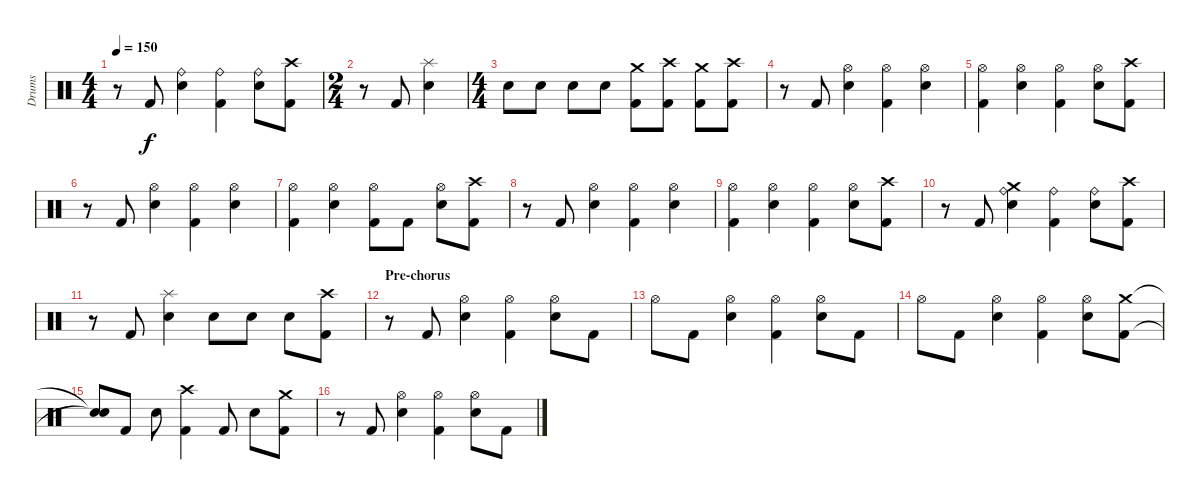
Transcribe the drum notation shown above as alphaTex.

\track ("Drums" "Drums") {instrument percussion}
\staff {score}
\articulation defaults
\ts (4 4)
\tempo 150
\clef neutral
\ks c
r.8{dy f} "Kick (hit) 2".8 ("Ride (bell)" "Electric Snare (hit)").4 ("Ride (bell)" "Kick (hit) 2").4 ("Ride (bell)" "Electric Snare (hit)").8 ("Crash high (hit)" "Kick (hit) 2").8 |
\ts (2 4)
r.8 "Kick (hit) 2".8 ("Electric Snare (hit)" "Splash (hit)").4 |
\ts (4 4)
"Electric Snare (hit)".8 "Electric Snare (hit)".8 "Electric Snare (hit)".8 "Electric Snare (hit)".8 ("Kick (hit) 2" "Crash medium (hit)").8 ("Kick (hit) 2" "Crash high (hit)").8 ("Kick (hit) 2" "Crash medium (hit)").8 ("Crash high (hit)" "Kick (hit) 2").8 |
r.8 "Kick (hit) 2".8 ("Hi-Hat (open)" "Electric Snare (hit)").4 ("Hi-Hat (open)" "Kick (hit) 2").4 ("Hi-Hat (open)" "Electric Snare (hit)").4 |
("Hi-Hat (open)" "Kick (hit) 2").4 ("Hi-Hat (open)" "Electric Snare (hit)").4 ("Hi-Hat (open)" "Kick (hit) 2").4 ("Hi-Hat (open)" "Electric Snare (hit)").8 ("Crash high (hit)" "Kick (hit) 2").8 |
r.8 "Kick (hit) 2".8 ("Hi-Hat (open)" "Electric Snare (hit)").4 ("Hi-Hat (open)" "Kick (hit) 2").4 ("Hi-Hat (open)" "Electric Snare (hit)").4 |
("Hi-Hat (open)" "Kick (hit) 2").4 ("Hi-Hat (open)" "Electric Snare (hit)").4 ("Hi-Hat (open)" "Kick (hit) 2").8 "Kick (hit) 2".8 ("Hi-Hat (open)" "Electric Snare (hit)").8 ("Crash high (hit)" "Kick (hit) 2").8 |
r.8 "Kick (hit) 2".8 ("Hi-Hat (open)" "Electric Snare (hit)").4 ("Hi-Hat (open)" "Kick (hit) 2").4 ("Hi-Hat (open)" "Electric Snare (hit)").4 |
("Hi-Hat (open)" "Kick (hit) 2").4 ("Hi-Hat (open)" "Electric Snare (hit)").4 ("Hi-Hat (open)" "Kick (hit) 2").4 ("Hi-Hat (open)" "Electric Snare (hit)").8 ("Crash high (hit)" "Kick (hit) 2").8 |
r.8 "Kick (hit) 2".8 ("Ride (bell)" "Electric Snare (hit)" "Crash medium (hit)").4 ("Ride (bell)" "Kick (hit) 2").4 ("Ride (bell)" "Electric Snare (hit)").8 ("Crash high (hit)" "Kick (hit) 2").8 |
r.8 "Kick (hit) 2".8 ("Electric Snare (hit)" "Splash (hit)").4 "Electric Snare (hit)".8 "Electric Snare (hit)".8 "Electric Snare (hit)".8 ("Kick (hit) 2" "Crash high (hit)").8 |
\section ("" "Pre-chorus")
r.8 "Kick (hit) 2".8 ("Hi-Hat (open)" "Electric Snare (hit)").4 ("Hi-Hat (open)" "Kick (hit) 2").4 ("Hi-Hat (open)" "Electric Snare (hit)").8 "Kick (hit) 2".8 |
"Hi-Hat (open)".8 "Kick (hit) 2".8 ("Hi-Hat (open)" "Electric Snare (hit)").4 ("Hi-Hat (open)" "Kick (hit) 2").4 ("Hi-Hat (open)" "Electric Snare (hit)").8 "Kick (hit) 2".8 |
"Hi-Hat (open)".8 "Kick (hit) 2".8 ("Hi-Hat (open)" "Electric Snare (hit)").4 ("Hi-Hat (open)" "Kick (hit) 2").4 ("Hi-Hat (open)" "Electric Snare (hit)").8 ("Crash medium (hit)" "Kick (hit) 2").8 |
("Snare (hit)"{t} "Snare (hit)"{t}).8 "Kick (hit) 2".8 "Electric Snare (hit)".8 ("Crash high (hit)" "Kick (hit) 2").4 "Kick (hit) 2".8 "Electric Snare (hit)".8 ("Crash medium (hit)" "Kick (hit) 2").8 |
r.8 "Kick (hit) 2".8 ("Hi-Hat (open)" "Electric Snare (hit)").4 ("Hi-Hat (open)" "Kick (hit) 2").4 ("Hi-Hat (open)" "Electric Snare (hit)").8 "Kick (hit) 2".8
